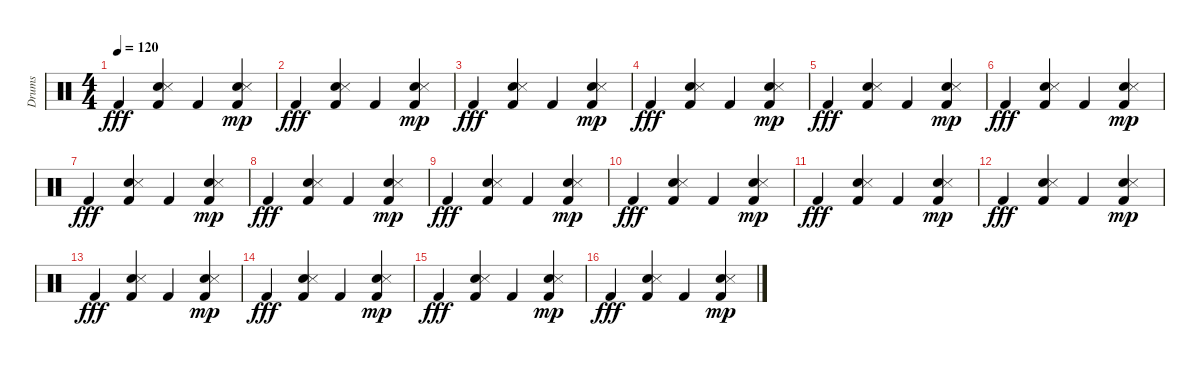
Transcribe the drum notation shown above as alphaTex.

\track ("Drums" "Drums") {instrument percussion}
\staff {score}
\articulation defaults
\ts (4 4)
\tempo 120
\clef neutral
\ks c "Kick (hit) 2".4{dy fff}
("Hand Clap (hit)" "Kick (hit) 2" "Snare (side stick) 3").4 "Kick (hit) 2".4 ("Kick (hit) 2" "Hand Clap (hit)" "Snare (side stick) 3").4{dy mp} |
"Kick (hit) 2".4{dy fff} ("Hand Clap (hit)" "Kick (hit) 2" "Snare (side stick) 3").4 "Kick (hit) 2".4 ("Kick (hit) 2" "Hand Clap (hit)" "Snare (side stick) 3").4{dy mp} |
"Kick (hit) 2".4{dy fff} ("Hand Clap (hit)" "Kick (hit) 2" "Snare (side stick) 3").4 "Kick (hit) 2".4 ("Kick (hit) 2" "Hand Clap (hit)" "Snare (side stick) 3").4{dy mp} |
"Kick (hit) 2".4{dy fff} ("Hand Clap (hit)" "Kick (hit) 2" "Snare (side stick) 3").4 "Kick (hit) 2".4 ("Kick (hit) 2" "Hand Clap (hit)" "Snare (side stick) 3").4{dy mp} |
"Kick (hit) 2".4{dy fff} ("Hand Clap (hit)" "Kick (hit) 2" "Snare (side stick) 3").4 "Kick (hit) 2".4 ("Kick (hit) 2" "Hand Clap (hit)" "Snare (side stick) 3").4{dy mp} |
"Kick (hit) 2".4{dy fff} ("Hand Clap (hit)" "Kick (hit) 2" "Snare (side stick) 3").4 "Kick (hit) 2".4 ("Kick (hit) 2" "Hand Clap (hit)" "Snare (side stick) 3").4{dy mp} |
"Kick (hit) 2".4{dy fff} ("Hand Clap (hit)" "Kick (hit) 2" "Snare (side stick) 3").4 "Kick (hit) 2".4 ("Kick (hit) 2" "Hand Clap (hit)" "Snare (side stick) 3").4{dy mp} |
"Kick (hit) 2".4{dy fff} ("Hand Clap (hit)" "Kick (hit) 2" "Snare (side stick) 3").4 "Kick (hit) 2".4 ("Kick (hit) 2" "Hand Clap (hit)" "Snare (side stick) 3").4{dy mp} |
"Kick (hit) 2".4{dy fff} ("Hand Clap (hit)" "Kick (hit) 2" "Snare (side stick) 3").4 "Kick (hit) 2".4 ("Kick (hit) 2" "Hand Clap (hit)" "Snare (side stick) 3").4{dy mp} |
"Kick (hit) 2".4{dy fff} ("Hand Clap (hit)" "Kick (hit) 2" "Snare (side stick) 3").4 "Kick (hit) 2".4 ("Kick (hit) 2" "Hand Clap (hit)" "Snare (side stick) 3").4{dy mp} |
"Kick (hit) 2".4{dy fff} ("Hand Clap (hit)" "Kick (hit) 2" "Snare (side stick) 3").4 "Kick (hit) 2".4 ("Kick (hit) 2" "Hand Clap (hit)" "Snare (side stick) 3").4{dy mp} |
"Kick (hit) 2".4{dy fff} ("Hand Clap (hit)" "Kick (hit) 2" "Snare (side stick) 3").4 "Kick (hit) 2".4 ("Kick (hit) 2" "Hand Clap (hit)" "Snare (side stick) 3").4{dy mp} |
"Kick (hit) 2".4{dy fff} ("Hand Clap (hit)" "Kick (hit) 2" "Snare (side stick) 3").4 "Kick (hit) 2".4 ("Kick (hit) 2" "Hand Clap (hit)" "Snare (side stick) 3").4{dy mp} |
"Kick (hit) 2".4{dy fff} ("Hand Clap (hit)" "Kick (hit) 2" "Snare (side stick) 3").4 "Kick (hit) 2".4 ("Kick (hit) 2" "Hand Clap (hit)" "Snare (side stick) 3").4{dy mp} |
"Kick (hit) 2".4{dy fff} ("Hand Clap (hit)" "Kick (hit) 2" "Snare (side stick) 3").4 "Kick (hit) 2".4 ("Kick (hit) 2" "Hand Clap (hit)" "Snare (side stick) 3").4{dy mp} |
"Kick (hit) 2".4{dy fff} ("Hand Clap (hit)" "Kick (hit) 2" "Snare (side stick) 3").4 "Kick (hit) 2".4 ("Kick (hit) 2" "Hand Clap (hit)" "Snare (side stick) 3").4{dy mp}
